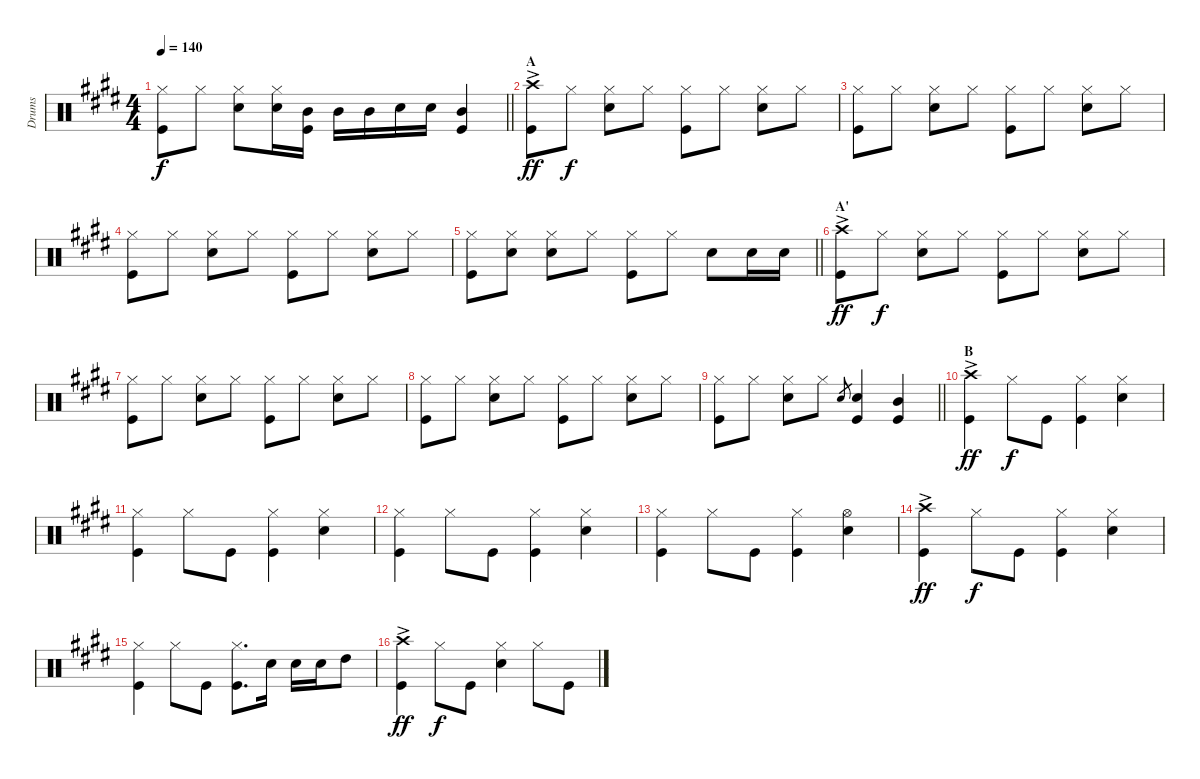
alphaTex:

\track ("Drums" "Drums") {instrument percussion}
\staff {score}
\articulation defaults
\ts (4 4)
\tempo 140
\clef neutral
\barLineRight lightlight
\ks e
("Hi-Hat (closed)" "Kick (hit)").8{dy f} "Hi-Hat (closed)".8 ("Hi-Hat (closed)" "Snare (hit) 2").8 ("Hi-Hat (closed)" "Snare (hit) 2").16 ("Kick (hit)" "Mid Tom (hit)").16 "Mid Tom (hit)".16 "Mid Tom (hit)".16 "Snare (hit) 2".16 "Snare (hit) 2".16 ("Mid Tom (hit)" "Kick (hit)").4 |
\section ("" "A")
("Crash high (hit)"{ac} "Kick (hit)").8{dy ff} "Hi-Hat (closed)".8{dy f} ("Hi-Hat (closed)" "Snare (hit) 2").8 "Hi-Hat (closed)".8 ("Kick (hit)" "Hi-Hat (closed)").8 "Hi-Hat (closed)".8 ("Snare (hit) 2" "Hi-Hat (closed)").8 "Hi-Hat (closed)".8 |
("Kick (hit)" "Hi-Hat (closed)").8 "Hi-Hat (closed)".8 ("Snare (hit) 2" "Hi-Hat (closed)").8 "Hi-Hat (closed)".8 ("Kick (hit)" "Hi-Hat (closed)").8 "Hi-Hat (closed)".8 ("Snare (hit) 2" "Hi-Hat (closed)").8 "Hi-Hat (closed)".8 |
("Kick (hit)" "Hi-Hat (closed)").8 "Hi-Hat (closed)".8 ("Snare (hit) 2" "Hi-Hat (closed)").8 "Hi-Hat (closed)".8 ("Kick (hit)" "Hi-Hat (closed)").8 "Hi-Hat (closed)".8 ("Snare (hit) 2" "Hi-Hat (closed)").8 "Hi-Hat (closed)".8 |
\barLineRight lightlight
("Hi-Hat (closed)" "Kick (hit)").8 ("Snare (hit) 2" "Hi-Hat (closed)").8 ("Snare (hit) 2" "Hi-Hat (closed)").8 "Hi-Hat (closed)".8 ("Kick (hit)" "Hi-Hat (closed)").8 "Hi-Hat (closed)".8 "Snare (hit) 2".8 "Snare (hit) 2".16 "Snare (hit) 2".16 |
\section ("" "A'")
("Crash high (hit)"{ac} "Kick (hit)").8{dy ff} "Hi-Hat (closed)".8{dy f} ("Hi-Hat (closed)" "Snare (hit) 2").8 "Hi-Hat (closed)".8 ("Kick (hit)" "Hi-Hat (closed)").8 "Hi-Hat (closed)".8 ("Snare (hit) 2" "Hi-Hat (closed)").8 "Hi-Hat (closed)".8 |
("Kick (hit)" "Hi-Hat (closed)").8 "Hi-Hat (closed)".8 ("Snare (hit) 2" "Hi-Hat (closed)").8 "Hi-Hat (closed)".8 ("Kick (hit)" "Hi-Hat (closed)").8 "Hi-Hat (closed)".8 ("Snare (hit) 2" "Hi-Hat (closed)").8 "Hi-Hat (closed)".8 |
("Kick (hit)" "Hi-Hat (closed)").8 "Hi-Hat (closed)".8 ("Snare (hit) 2" "Hi-Hat (closed)").8 "Hi-Hat (closed)".8 ("Kick (hit)" "Hi-Hat (closed)").8 "Hi-Hat (closed)".8 ("Snare (hit) 2" "Hi-Hat (closed)").8 "Hi-Hat (closed)".8 |
\barLineRight lightlight
("Hi-Hat (closed)" "Kick (hit)").8 "Hi-Hat (closed)".8 ("Snare (hit) 2" "Hi-Hat (closed)").8 "Hi-Hat (closed)".8 "Snare (hit) 2".8{gr} ("Snare (hit) 2" "Kick (hit)").4 ("Mid Tom (hit)" "Kick (hit)").4 |
\section ("" "B")
("Crash high (hit)"{ac} "Kick (hit)").4{dy ff} "Hi-Hat (closed)".8{dy f} "Kick (hit)".8 ("Kick (hit)" "Hi-Hat (closed)").4 ("Hi-Hat (closed)" "Snare (hit) 2").4 |
("Hi-Hat (closed)" "Kick (hit)").4 "Hi-Hat (closed)".8 "Kick (hit)".8 ("Kick (hit)" "Hi-Hat (closed)").4 ("Hi-Hat (closed)" "Snare (hit) 2").4 |
("Hi-Hat (closed)" "Kick (hit)").4 "Hi-Hat (closed)".8 "Kick (hit)".8 ("Kick (hit)" "Hi-Hat (closed)").4 ("Hi-Hat (closed)" "Snare (hit) 2").4 |
("Hi-Hat (closed)" "Kick (hit)").4 "Hi-Hat (closed)".8 "Kick (hit)".8 ("Kick (hit)" "Hi-Hat (closed)").4 ("Hi-Hat (open)" "Snare (hit) 2").4 |
("Crash high (hit)"{ac} "Kick (hit)").4{dy ff} "Hi-Hat (closed)".8{dy f} "Kick (hit)".8 ("Kick (hit)" "Hi-Hat (closed)").4 ("Hi-Hat (closed)" "Snare (hit) 2").4 |
("Hi-Hat (closed)" "Kick (hit)").4 "Hi-Hat (closed)".8 "Kick (hit)".8 ("Kick (hit)" "Hi-Hat (closed)").8{d} "Snare (hit) 2".16 "Snare (hit) 2".16 "Snare (hit) 2".16 "High Tom (hit)".8 |
("Crash high (hit)"{ac} "Kick (hit)").4{dy ff} "Hi-Hat (closed)".8{dy f} "Kick (hit)".8 ("Snare (hit) 2" "Hi-Hat (closed)").4 "Hi-Hat (closed)".8 "Kick (hit)".8
